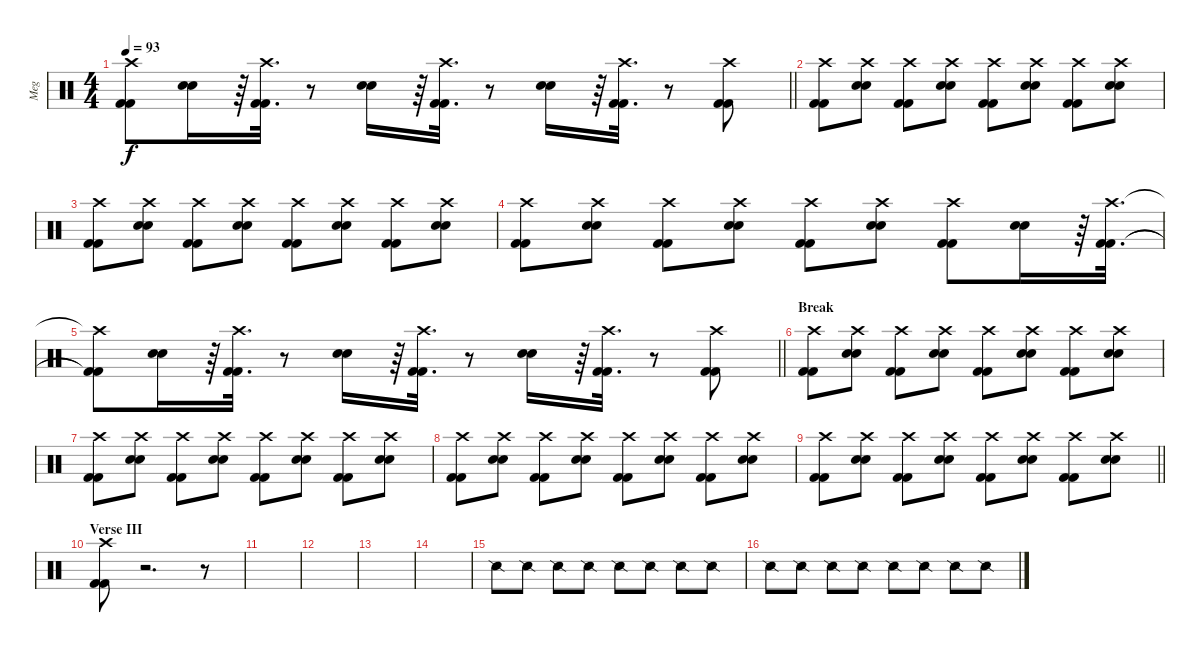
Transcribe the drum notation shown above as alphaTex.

\track ("Meg" "Meg") {instrument percussion}
\staff {score}
\articulation defaults
\ts (4 4)
\tempo 93
\clef neutral
\barLineRight lightlight
\ks c
("Crash high (hit)"{t} "Kick (hit) 2"{t} "Kick (hit) 2"{t}).8{dy f} ("Snare (hit) 2" "Snare (hit) 2").16 r.64 ("Crash high (hit)" "Kick (hit) 2" "Kick (hit) 2").32{d} r.8 ("Snare (hit) 2" "Snare (hit) 2").16 r.64 ("Crash high (hit)" "Kick (hit) 2" "Kick (hit) 2").32{d} r.8 ("Snare (hit) 2" "Snare (hit) 2").16 r.64 ("Crash high (hit)" "Kick (hit) 2" "Kick (hit) 2").32{d} r.8 ("Crash high (hit)" "Kick (hit) 2" "Kick (hit) 2").8 |
("Crash high (hit)" "Kick (hit) 2" "Kick (hit) 2").8 ("Crash high (hit)" "Snare (hit) 2" "Snare (hit) 2").8 ("Crash high (hit)" "Kick (hit) 2" "Kick (hit) 2").8 ("Crash high (hit)" "Snare (hit) 2" "Snare (hit) 2").8 ("Crash high (hit)" "Kick (hit) 2" "Kick (hit) 2").8 ("Crash high (hit)" "Snare (hit) 2" "Snare (hit) 2").8 ("Crash high (hit)" "Kick (hit) 2" "Kick (hit) 2").8 ("Crash high (hit)" "Snare (hit) 2" "Snare (hit) 2").8 |
("Crash high (hit)" "Kick (hit) 2" "Kick (hit) 2").8 ("Crash high (hit)" "Snare (hit) 2" "Snare (hit) 2").8 ("Crash high (hit)" "Kick (hit) 2" "Kick (hit) 2").8 ("Crash high (hit)" "Snare (hit) 2" "Snare (hit) 2").8 ("Crash high (hit)" "Kick (hit) 2" "Kick (hit) 2").8 ("Crash high (hit)" "Snare (hit) 2" "Snare (hit) 2").8 ("Crash high (hit)" "Kick (hit) 2" "Kick (hit) 2").8 ("Crash high (hit)" "Snare (hit) 2" "Snare (hit) 2").8 |
("Crash high (hit)" "Kick (hit) 2" "Kick (hit) 2").8 ("Crash high (hit)" "Snare (hit) 2" "Snare (hit) 2").8 ("Crash high (hit)" "Kick (hit) 2" "Kick (hit) 2").8 ("Crash high (hit)" "Snare (hit) 2" "Snare (hit) 2").8 ("Crash high (hit)" "Kick (hit) 2" "Kick (hit) 2").8 ("Crash high (hit)" "Snare (hit) 2" "Snare (hit) 2").8 ("Crash high (hit)" "Kick (hit) 2" "Kick (hit) 2").8 ("Snare (hit) 2" "Snare (hit) 2").16 r.64 ("Crash high (hit)" "Kick (hit) 2" "Kick (hit) 2").32{d} |
\barLineRight lightlight
("Crash high (hit)"{t} "Kick (hit) 2"{t} "Kick (hit) 2"{t}).8 ("Snare (hit) 2" "Snare (hit) 2").16 r.64 ("Crash high (hit)" "Kick (hit) 2" "Kick (hit) 2").32{d} r.8 ("Snare (hit) 2" "Snare (hit) 2").16 r.64 ("Crash high (hit)" "Kick (hit) 2" "Kick (hit) 2").32{d} r.8 ("Snare (hit) 2" "Snare (hit) 2").16 r.64 ("Crash high (hit)" "Kick (hit) 2" "Kick (hit) 2").32{d} r.8 ("Crash high (hit)" "Kick (hit) 2" "Kick (hit) 2").8 |
\section ("" "Break")
("Crash high (hit)" "Kick (hit) 2" "Kick (hit) 2").8 ("Crash high (hit)" "Snare (hit) 2" "Snare (hit) 2").8 ("Crash high (hit)" "Kick (hit) 2" "Kick (hit) 2").8 ("Crash high (hit)" "Snare (hit) 2" "Snare (hit) 2").8 ("Crash high (hit)" "Kick (hit) 2" "Kick (hit) 2").8 ("Crash high (hit)" "Snare (hit) 2" "Snare (hit) 2").8 ("Crash high (hit)" "Kick (hit) 2" "Kick (hit) 2").8 ("Crash high (hit)" "Snare (hit) 2" "Snare (hit) 2").8 |
("Crash high (hit)" "Kick (hit) 2" "Kick (hit) 2").8 ("Crash high (hit)" "Snare (hit) 2" "Snare (hit) 2").8 ("Crash high (hit)" "Kick (hit) 2" "Kick (hit) 2").8 ("Crash high (hit)" "Snare (hit) 2" "Snare (hit) 2").8 ("Crash high (hit)" "Kick (hit) 2" "Kick (hit) 2").8 ("Crash high (hit)" "Snare (hit) 2" "Snare (hit) 2").8 ("Crash high (hit)" "Kick (hit) 2" "Kick (hit) 2").8 ("Crash high (hit)" "Snare (hit) 2" "Snare (hit) 2").8 |
("Crash high (hit)" "Kick (hit) 2" "Kick (hit) 2").8 ("Crash high (hit)" "Snare (hit) 2" "Snare (hit) 2").8 ("Crash high (hit)" "Kick (hit) 2" "Kick (hit) 2").8 ("Crash high (hit)" "Snare (hit) 2" "Snare (hit) 2").8 ("Crash high (hit)" "Kick (hit) 2" "Kick (hit) 2").8 ("Crash high (hit)" "Snare (hit) 2" "Snare (hit) 2").8 ("Crash high (hit)" "Kick (hit) 2" "Kick (hit) 2").8 ("Crash high (hit)" "Snare (hit) 2" "Snare (hit) 2").8 |
\barLineRight lightlight
("Crash high (hit)" "Kick (hit) 2" "Kick (hit) 2").8 ("Crash high (hit)" "Snare (hit) 2" "Snare (hit) 2").8 ("Crash high (hit)" "Kick (hit) 2" "Kick (hit) 2").8 ("Crash high (hit)" "Snare (hit) 2" "Snare (hit) 2").8 ("Crash high (hit)" "Kick (hit) 2" "Kick (hit) 2").8 ("Crash high (hit)" "Snare (hit) 2" "Snare (hit) 2").8 ("Crash high (hit)" "Kick (hit) 2" "Kick (hit) 2").8 ("Crash high (hit)" "Snare (hit) 2" "Snare (hit) 2").8 |
\section ("" "Verse III")
("Crash high (hit)" "Kick (hit) 2" "Kick (hit) 2").8 r.2{d} r.8 |
|
|
|
|
"Snare (side stick) 2".8 "Snare (side stick) 2".8 "Snare (side stick) 2".8 "Snare (side stick) 2".8 "Snare (side stick) 2".8 "Snare (side stick) 2".8 "Snare (side stick) 2".8 "Snare (side stick) 2".8 |
"Snare (side stick) 2".8 "Snare (side stick) 2".8 "Snare (side stick) 2".8 "Snare (side stick) 2".8 "Snare (side stick) 2".8 "Snare (side stick) 2".8 "Snare (side stick) 2".8 "Snare (side stick) 2".8
